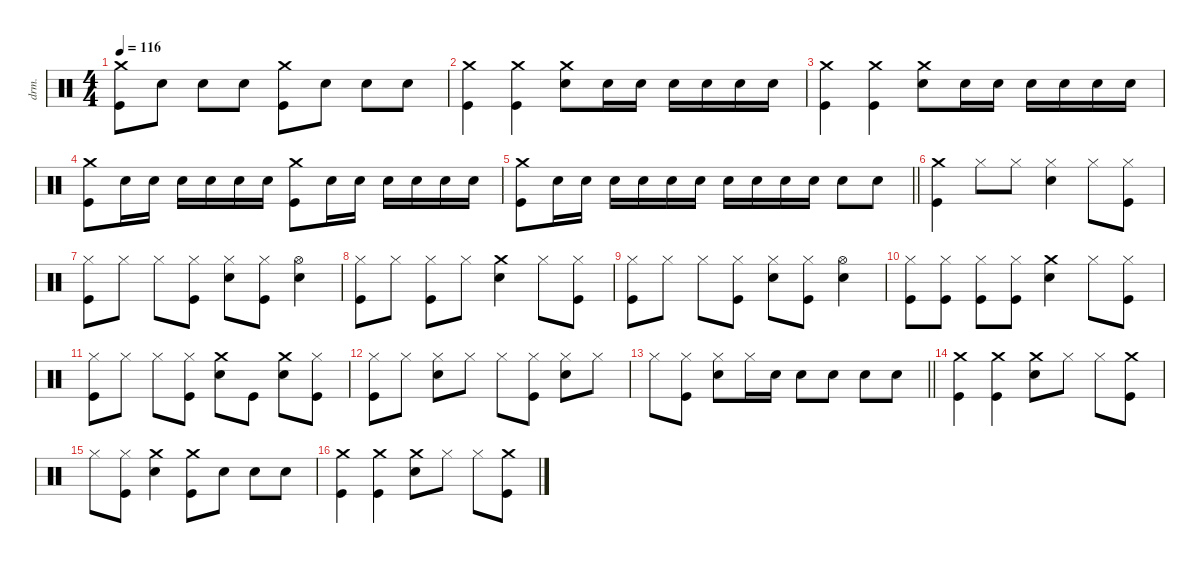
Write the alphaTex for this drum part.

\defaultSystemsLayout 4
\hideDynamics
\bracketExtendMode nobrackets
\otherSystemsTrackNameOrientation horizontal
\track ("Drum" "drm.") {instrument percussion}
\staff {score}
\articulation defaults
\ts (4 4)
\tempo 116
\clef neutral
\ks c
("Kick (hit)" "Crash medium (hit)").8{dy f beam Down} "Snare (hit) 2".8{beam Down} "Snare (hit) 2".8{beam Down} "Snare (hit) 2".8{beam Down} ("Kick (hit)" "Crash medium (hit)").8{beam Down} "Snare (hit) 2".8{beam Down} "Snare (hit) 2".8{beam Down} "Snare (hit) 2".8{beam Down} |
("Kick (hit)" "Crash medium (hit)").4{beam Down} ("Kick (hit)" "Crash medium (hit)").4{beam Down} ("Snare (hit) 2" "Crash medium (hit)").8{beam Down} "Snare (hit) 2".16{beam Down} "Snare (hit) 2".16{beam Down} "Snare (hit) 2".16{beam Down} "Snare (hit) 2".16{beam Down} "Snare (hit) 2".16{beam Down} "Snare (hit) 2".16{beam Down} |
("Kick (hit)" "Crash medium (hit)").4{beam Down} ("Kick (hit)" "Crash medium (hit)").4{beam Down} ("Snare (hit) 2" "Crash medium (hit)").8{beam Down} "Snare (hit) 2".16{beam Down} "Snare (hit) 2".16{beam Down} "Snare (hit) 2".16{beam Down} "Snare (hit) 2".16{beam Down} "Snare (hit) 2".16{beam Down} "Snare (hit) 2".16{beam Down} |
("Kick (hit)" "Crash medium (hit)").8{beam Down} "Snare (hit) 2".16{beam Down} "Snare (hit) 2".16{beam Down} "Snare (hit) 2".16{beam Down} "Snare (hit) 2".16{beam Down} "Snare (hit) 2".16{beam Down} "Snare (hit) 2".16{beam Down} ("Kick (hit)" "Crash medium (hit)").8{beam Down} "Snare (hit) 2".16{beam Down} "Snare (hit) 2".16{beam Down} "Snare (hit) 2".16{beam Down} "Snare (hit) 2".16{beam Down} "Snare (hit) 2".16{beam Down} "Snare (hit) 2".16{beam Down} |
\barLineRight lightlight
("Kick (hit)" "Crash medium (hit)").8{beam Down} "Snare (hit) 2".16{beam Down} "Snare (hit) 2".16{beam Down} "Snare (hit) 2".16{beam Down} "Snare (hit) 2".16{beam Down} "Snare (hit) 2".16{beam Down} "Snare (hit) 2".16{beam Down} "Snare (hit) 2".16{beam Down} "Snare (hit) 2".16{beam Down} "Snare (hit) 2".16{beam Down} "Snare (hit) 2".16{beam Down} "Snare (hit) 2".8{beam Down} "Snare (hit) 2".8{beam Down} |
("Kick (hit)" "Crash medium (hit)").4{beam Down} "Hi-Hat (closed)".8{beam Down} "Hi-Hat (closed)".8{beam Down} ("Snare (hit) 2" "Hi-Hat (closed)").4{beam Down} "Hi-Hat (closed)".8{beam Down} ("Kick (hit)" "Hi-Hat (closed)").8{beam Down} |
("Kick (hit)" "Hi-Hat (closed)").8{beam Down} "Hi-Hat (closed)".8{beam Down} "Hi-Hat (closed)".8{beam Down} ("Kick (hit)" "Hi-Hat (closed)").8{beam Down} ("Snare (hit) 2" "Hi-Hat (closed)").8{beam Down} ("Kick (hit)" "Hi-Hat (closed)").8{beam Down} ("Snare (hit) 2" "Hi-Hat (open)").4{beam Down} |
("Kick (hit)" "Hi-Hat (closed)").8{beam Down} "Hi-Hat (closed)".8{beam Down} ("Kick (hit)" "Hi-Hat (closed)").8{beam Down} "Hi-Hat (closed)".8{beam Down} ("Snare (hit) 2" "Crash medium (hit)").4{beam Down} "Hi-Hat (closed)".8{beam Down} ("Kick (hit)" "Hi-Hat (closed)").8{beam Down} |
("Kick (hit)" "Hi-Hat (closed)").8{beam Down} "Hi-Hat (closed)".8{beam Down} "Hi-Hat (closed)".8{beam Down} ("Kick (hit)" "Hi-Hat (closed)").8{beam Down} ("Snare (hit) 2" "Hi-Hat (closed)").8{beam Down} ("Kick (hit)" "Hi-Hat (closed)").8{beam Down} ("Snare (hit) 2" "Hi-Hat (open)").4{beam Down} |
("Kick (hit)" "Hi-Hat (closed)").8{beam Down} ("Kick (hit)" "Hi-Hat (closed)").8{beam Down} ("Kick (hit)" "Hi-Hat (closed)").8{beam Down} ("Kick (hit)" "Hi-Hat (closed)").8{beam Down} ("Snare (hit) 2" "Crash medium (hit)").4{beam Down} "Hi-Hat (closed)".8{beam Down} ("Kick (hit)" "Hi-Hat (closed)").8{beam Down} |
("Kick (hit)" "Hi-Hat (closed)").8{beam Down} "Hi-Hat (closed)".8{beam Down} "Hi-Hat (closed)".8{beam Down} ("Kick (hit)" "Hi-Hat (closed)").8{beam Down} ("Snare (hit) 2" "Crash medium (hit)").8{beam Down} "Kick (hit)".8{beam Down} ("Snare (hit) 2" "Crash medium (hit)").8{beam Down} ("Kick (hit)" "Hi-Hat (closed)").8{beam Down} |
("Kick (hit)" "Hi-Hat (closed)").8{beam Down} "Hi-Hat (closed)".8{beam Down} ("Snare (hit) 2" "Hi-Hat (closed)").8{beam Down} "Hi-Hat (closed)".8{beam Down} "Hi-Hat (closed)".8{beam Down} ("Kick (hit)" "Hi-Hat (closed)").8{beam Down} ("Snare (hit) 2" "Hi-Hat (closed)").8{beam Down} "Hi-Hat (closed)".8{beam Down} |
\barLineRight lightlight "Hi-Hat (closed)".8{beam Down}
("Kick (hit)" "Hi-Hat (closed)").8{beam Down} ("Snare (hit) 2" "Hi-Hat (closed)").8{beam Down} "Hi-Hat (closed)".16{beam Down} "Snare (hit) 2".16{beam Down} "Snare (hit) 2".8{beam Down} "Snare (hit) 2".8{beam Down} "Snare (hit) 2".8{beam Down} "Snare (hit) 2".8{beam Down} |
("Kick (hit)" "Crash medium (hit)").4{beam Down} ("Kick (hit)" "Crash medium (hit)").4{beam Down} ("Snare (hit) 2" "Crash medium (hit)").8{beam Down} "Hi-Hat (closed)".8{beam Down} "Hi-Hat (closed)".8{beam Down} ("Kick (hit)" "Crash medium (hit)").8{beam Down} |
"Hi-Hat (closed)".8{beam Down} ("Kick (hit)" "Hi-Hat (closed)").8{beam Down} ("Snare (hit) 2" "Crash medium (hit)").4{beam Down} ("Kick (hit)" "Crash medium (hit)").8{beam Down} "Snare (hit) 2".8{beam Down} "Snare (hit) 2".8{beam Down} "Snare (hit) 2".8{beam Down} |
("Kick (hit)" "Crash medium (hit)").4{beam Down} ("Kick (hit)" "Crash medium (hit)").4{beam Down} ("Snare (hit) 2" "Crash medium (hit)").8{beam Down} "Hi-Hat (closed)".8{beam Down} "Hi-Hat (closed)".8{beam Down} ("Kick (hit)" "Crash medium (hit)").8{beam Down}
